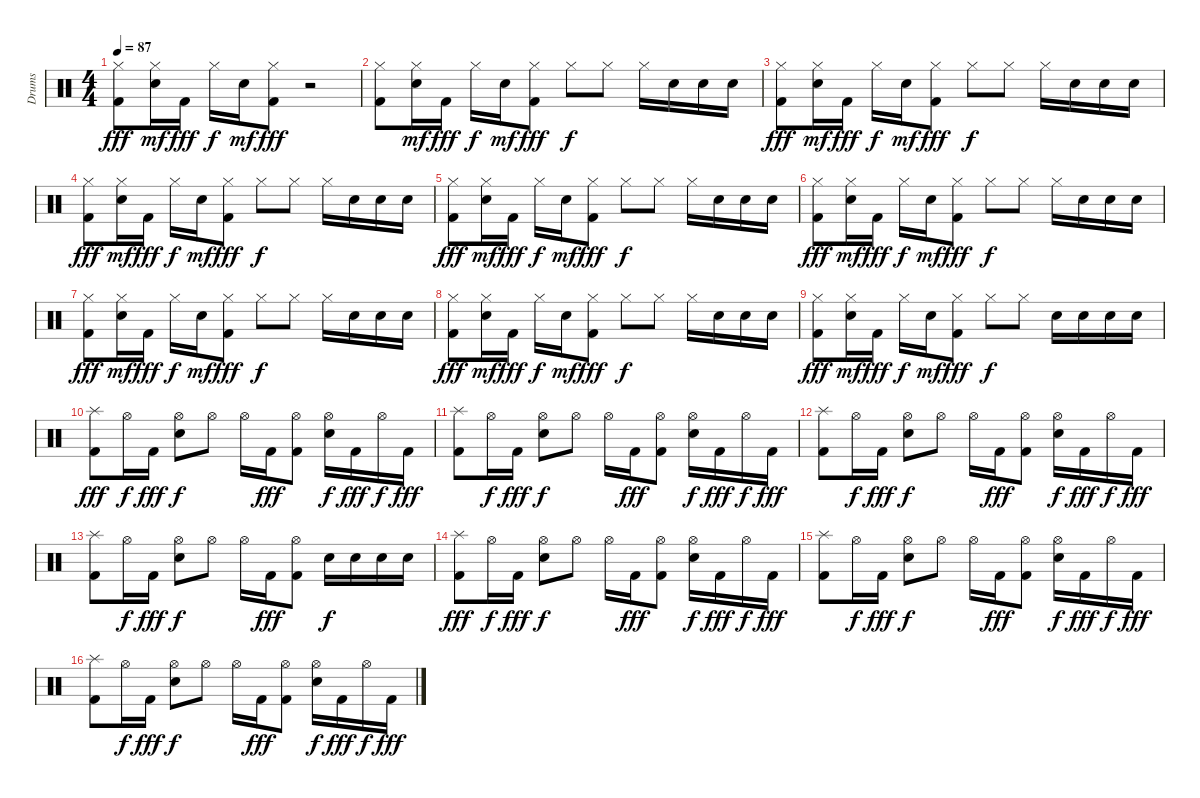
\track ("Drums" "Drums") {instrument percussion}
\staff {score}
\articulation defaults
\ts (4 4)
\tempo 87
\clef neutral
\ks c
("Hi-Hat (closed)" "Kick (hit) 2").8{dy fff} ("Hi-Hat (closed)" "Snare (hit) 2").16{dy mf} "Kick (hit) 2".16{dy fff} "Hi-Hat (closed)".16{dy f} "Snare (hit) 2".16{dy mf} ("Hi-Hat (closed)" "Kick (hit) 2").8{dy fff} r.2 |
("Hi-Hat (closed)" "Kick (hit) 2").8 ("Hi-Hat (closed)" "Snare (hit) 2").16{dy mf} "Kick (hit) 2".16{dy fff} "Hi-Hat (closed)".16{dy f} "Snare (hit) 2".16{dy mf} ("Hi-Hat (closed)" "Kick (hit) 2").8{dy fff} "Hi-Hat (closed)".8{dy f} "Hi-Hat (closed)".8 "Hi-Hat (closed)".16 "Snare (hit) 2".16 "Snare (hit) 2".16 "Snare (hit) 2".16 |
("Hi-Hat (closed)" "Kick (hit) 2").8{dy fff} ("Hi-Hat (closed)" "Snare (hit) 2").16{dy mf} "Kick (hit) 2".16{dy fff} "Hi-Hat (closed)".16{dy f} "Snare (hit) 2".16{dy mf} ("Hi-Hat (closed)" "Kick (hit) 2").8{dy fff} "Hi-Hat (closed)".8{dy f} "Hi-Hat (closed)".8 "Hi-Hat (closed)".16 "Snare (hit) 2".16 "Snare (hit) 2".16 "Snare (hit) 2".16 |
("Hi-Hat (closed)" "Kick (hit) 2").8{dy fff} ("Hi-Hat (closed)" "Snare (hit) 2").16{dy mf} "Kick (hit) 2".16{dy fff} "Hi-Hat (closed)".16{dy f} "Snare (hit) 2".16{dy mf} ("Hi-Hat (closed)" "Kick (hit) 2").8{dy fff} "Hi-Hat (closed)".8{dy f} "Hi-Hat (closed)".8 "Hi-Hat (closed)".16 "Snare (hit) 2".16 "Snare (hit) 2".16 "Snare (hit) 2".16 |
("Hi-Hat (closed)" "Kick (hit) 2").8{dy fff} ("Hi-Hat (closed)" "Snare (hit) 2").16{dy mf} "Kick (hit) 2".16{dy fff} "Hi-Hat (closed)".16{dy f} "Snare (hit) 2".16{dy mf} ("Hi-Hat (closed)" "Kick (hit) 2").8{dy fff} "Hi-Hat (closed)".8{dy f} "Hi-Hat (closed)".8 "Hi-Hat (closed)".16 "Snare (hit) 2".16 "Snare (hit) 2".16 "Snare (hit) 2".16 |
("Hi-Hat (closed)" "Kick (hit) 2").8{dy fff} ("Hi-Hat (closed)" "Snare (hit) 2").16{dy mf} "Kick (hit) 2".16{dy fff} "Hi-Hat (closed)".16{dy f} "Snare (hit) 2".16{dy mf} ("Hi-Hat (closed)" "Kick (hit) 2").8{dy fff} "Hi-Hat (closed)".8{dy f} "Hi-Hat (closed)".8 "Hi-Hat (closed)".16 "Snare (hit) 2".16 "Snare (hit) 2".16 "Snare (hit) 2".16 |
("Hi-Hat (closed)" "Kick (hit) 2").8{dy fff} ("Hi-Hat (closed)" "Snare (hit) 2").16{dy mf} "Kick (hit) 2".16{dy fff} "Hi-Hat (closed)".16{dy f} "Snare (hit) 2".16{dy mf} ("Hi-Hat (closed)" "Kick (hit) 2").8{dy fff} "Hi-Hat (closed)".8{dy f} "Hi-Hat (closed)".8 "Hi-Hat (closed)".16 "Snare (hit) 2".16 "Snare (hit) 2".16 "Snare (hit) 2".16 |
("Hi-Hat (closed)" "Kick (hit) 2").8{dy fff} ("Hi-Hat (closed)" "Snare (hit) 2").16{dy mf} "Kick (hit) 2".16{dy fff} "Hi-Hat (closed)".16{dy f} "Snare (hit) 2".16{dy mf} ("Hi-Hat (closed)" "Kick (hit) 2").8{dy fff} "Hi-Hat (closed)".8{dy f} "Hi-Hat (closed)".8 "Hi-Hat (closed)".16 "Snare (hit) 2".16 "Snare (hit) 2".16 "Snare (hit) 2".16 |
("Hi-Hat (closed)" "Kick (hit) 2").8{dy fff} ("Hi-Hat (closed)" "Snare (hit) 2").16{dy mf} "Kick (hit) 2".16{dy fff} "Hi-Hat (closed)".16{dy f} "Snare (hit) 2".16{dy mf} ("Hi-Hat (closed)" "Kick (hit) 2").8{dy fff} "Hi-Hat (closed)".8{dy f} "Hi-Hat (closed)".8 "Snare (hit) 2".16{volume 13} "Snare (hit) 2".16 "Snare (hit) 2".16 "Snare (hit) 2".16 |
("Splash (hit)" "Kick (hit) 2").8{dy fff} "Hi-Hat (open)".16{dy f} "Kick (hit) 2".16{dy fff} ("Hi-Hat (open)" "Snare (hit) 2").8{dy f} "Hi-Hat (open)".8 "Hi-Hat (open)".16 "Kick (hit) 2".16{dy fff} ("Hi-Hat (open)" "Kick (hit) 2").8 ("Hi-Hat (open)" "Snare (hit) 2").16{dy f} "Kick (hit) 2".16{dy fff} "Hi-Hat (open)".16{dy f} "Kick (hit) 2".16{dy fff} |
("Splash (hit)" "Kick (hit) 2").8 "Hi-Hat (open)".16{dy f} "Kick (hit) 2".16{dy fff} ("Hi-Hat (open)" "Snare (hit) 2").8{dy f} "Hi-Hat (open)".8 "Hi-Hat (open)".16 "Kick (hit) 2".16{dy fff} ("Hi-Hat (open)" "Kick (hit) 2").8 ("Hi-Hat (open)" "Snare (hit) 2").16{dy f} "Kick (hit) 2".16{dy fff} "Hi-Hat (open)".16{dy f} "Kick (hit) 2".16{dy fff} |
("Splash (hit)" "Kick (hit) 2").8 "Hi-Hat (open)".16{dy f} "Kick (hit) 2".16{dy fff} ("Hi-Hat (open)" "Snare (hit) 2").8{dy f} "Hi-Hat (open)".8 "Hi-Hat (open)".16 "Kick (hit) 2".16{dy fff} ("Hi-Hat (open)" "Kick (hit) 2").8 ("Hi-Hat (open)" "Snare (hit) 2").16{dy f} "Kick (hit) 2".16{dy fff} "Hi-Hat (open)".16{dy f} "Kick (hit) 2".16{dy fff} |
("Splash (hit)" "Kick (hit) 2").8 "Hi-Hat (open)".16{dy f} "Kick (hit) 2".16{dy fff} ("Hi-Hat (open)" "Snare (hit) 2").8{dy f} "Hi-Hat (open)".8 "Hi-Hat (open)".16 "Kick (hit) 2".16{dy fff} ("Hi-Hat (open)" "Kick (hit) 2").8 "Snare (hit) 2".16{dy f} "Snare (hit) 2".16 "Snare (hit) 2".16 "Snare (hit) 2".16 |
("Splash (hit)" "Kick (hit) 2").8{dy fff} "Hi-Hat (open)".16{dy f} "Kick (hit) 2".16{dy fff} ("Hi-Hat (open)" "Snare (hit) 2").8{dy f} "Hi-Hat (open)".8 "Hi-Hat (open)".16 "Kick (hit) 2".16{dy fff} ("Hi-Hat (open)" "Kick (hit) 2").8 ("Hi-Hat (open)" "Snare (hit) 2").16{dy f} "Kick (hit) 2".16{dy fff} "Hi-Hat (open)".16{dy f} "Kick (hit) 2".16{dy fff} |
("Splash (hit)" "Kick (hit) 2").8 "Hi-Hat (open)".16{dy f} "Kick (hit) 2".16{dy fff} ("Hi-Hat (open)" "Snare (hit) 2").8{dy f} "Hi-Hat (open)".8 "Hi-Hat (open)".16 "Kick (hit) 2".16{dy fff} ("Hi-Hat (open)" "Kick (hit) 2").8 ("Hi-Hat (open)" "Snare (hit) 2").16{dy f} "Kick (hit) 2".16{dy fff} "Hi-Hat (open)".16{dy f} "Kick (hit) 2".16{dy fff} |
("Splash (hit)" "Kick (hit) 2").8 "Hi-Hat (open)".16{dy f} "Kick (hit) 2".16{dy fff} ("Hi-Hat (open)" "Snare (hit) 2").8{dy f} "Hi-Hat (open)".8 "Hi-Hat (open)".16 "Kick (hit) 2".16{dy fff} ("Hi-Hat (open)" "Kick (hit) 2").8 ("Hi-Hat (open)" "Snare (hit) 2").16{dy f} "Kick (hit) 2".16{dy fff} "Hi-Hat (open)".16{dy f} "Kick (hit) 2".16{dy fff}
